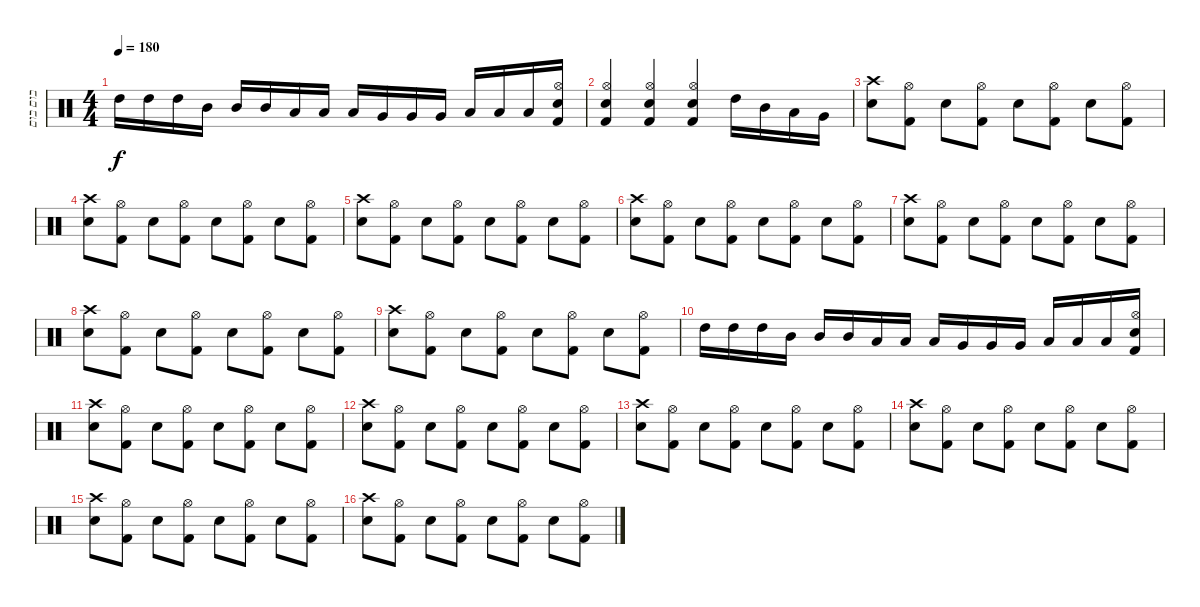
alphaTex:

\track ("בום בום" "בום בום") {instrument percussion}
\staff {score}
\articulation defaults
\ts (4 4)
\tempo 180
\clef neutral
\ks c "High Tom (hit)".16{dy f} "High Tom (hit)".16 "High Tom (hit)".16 "Mid Tom (hit)".16 "Mid Tom (hit)".16 "Mid Tom (hit)".16 "Low Tom (hit)".16 "Low Tom (hit)".16 "Low Tom (hit)".16 "Very Low Tom (hit)".16 "Very Low Tom (hit)".16 "Very Low Tom (hit)".16 "Low Floor Tom (hit)".16 "Low Floor Tom (hit)".16 "Low Floor Tom (hit)".16
("Kick (hit) 2" "Hi-Hat (open)" "Snare (hit) 2").16 |
("Kick (hit) 2" "Hi-Hat (open)" "Snare (hit) 2").4 ("Kick (hit) 2" "Hi-Hat (open)" "Snare (hit) 2").4 ("Kick (hit) 2" "Hi-Hat (open)" "Snare (hit) 2").4 "High Tom (hit)".16 "Mid Tom (hit)".16 "Low Tom (hit)".16 "Very Low Tom (hit)".16 |
("Snare (hit) 2" "Crash high (hit)").8 ("Kick (hit) 2" "Hi-Hat (open)").8 "Snare (hit) 2".8 ("Kick (hit) 2" "Hi-Hat (open)").8 "Snare (hit) 2".8 ("Kick (hit) 2" "Hi-Hat (open)").8 "Snare (hit) 2".8 ("Kick (hit) 2" "Hi-Hat (open)").8 |
("Snare (hit) 2" "Crash high (hit)").8 ("Kick (hit) 2" "Hi-Hat (open)").8 "Snare (hit) 2".8 ("Kick (hit) 2" "Hi-Hat (open)").8 "Snare (hit) 2".8 ("Kick (hit) 2" "Hi-Hat (open)").8 "Snare (hit) 2".8 ("Kick (hit) 2" "Hi-Hat (open)").8 |
("Snare (hit) 2" "Crash high (hit)").8 ("Kick (hit) 2" "Hi-Hat (open)").8 "Snare (hit) 2".8 ("Kick (hit) 2" "Hi-Hat (open)").8 "Snare (hit) 2".8 ("Kick (hit) 2" "Hi-Hat (open)").8 "Snare (hit) 2".8 ("Kick (hit) 2" "Hi-Hat (open)").8 |
("Snare (hit) 2" "Crash high (hit)").8 ("Kick (hit) 2" "Hi-Hat (open)").8 "Snare (hit) 2".8 ("Kick (hit) 2" "Hi-Hat (open)").8 "Snare (hit) 2".8 ("Kick (hit) 2" "Hi-Hat (open)").8 "Snare (hit) 2".8 ("Kick (hit) 2" "Hi-Hat (open)").8 |
("Snare (hit) 2" "Crash high (hit)").8 ("Kick (hit) 2" "Hi-Hat (open)").8 "Snare (hit) 2".8 ("Kick (hit) 2" "Hi-Hat (open)").8 "Snare (hit) 2".8 ("Kick (hit) 2" "Hi-Hat (open)").8 "Snare (hit) 2".8 ("Kick (hit) 2" "Hi-Hat (open)").8 |
("Snare (hit) 2" "Crash high (hit)").8 ("Kick (hit) 2" "Hi-Hat (open)").8 "Snare (hit) 2".8 ("Kick (hit) 2" "Hi-Hat (open)").8 "Snare (hit) 2".8 ("Kick (hit) 2" "Hi-Hat (open)").8 "Snare (hit) 2".8 ("Kick (hit) 2" "Hi-Hat (open)").8 |
("Snare (hit) 2" "Crash high (hit)").8 ("Kick (hit) 2" "Hi-Hat (open)").8 "Snare (hit) 2".8 ("Kick (hit) 2" "Hi-Hat (open)").8 "Snare (hit) 2".8 ("Kick (hit) 2" "Hi-Hat (open)").8 "Snare (hit) 2".8 ("Kick (hit) 2" "Hi-Hat (open)").8 |
"High Tom (hit)".16 "High Tom (hit)".16 "High Tom (hit)".16 "Mid Tom (hit)".16 "Mid Tom (hit)".16 "Mid Tom (hit)".16 "Low Tom (hit)".16 "Low Tom (hit)".16 "Low Tom (hit)".16 "Very Low Tom (hit)".16 "Very Low Tom (hit)".16 "Very Low Tom (hit)".16 "Low Floor Tom (hit)".16 "Low Floor Tom (hit)".16 "Low Floor Tom (hit)".16 ("Kick (hit) 2" "Hi-Hat (open)" "Snare (hit) 2").16 |
("Snare (hit) 2" "Crash high (hit)").8 ("Kick (hit) 2" "Hi-Hat (open)").8 "Snare (hit) 2".8 ("Kick (hit) 2" "Hi-Hat (open)").8 "Snare (hit) 2".8 ("Kick (hit) 2" "Hi-Hat (open)").8 "Snare (hit) 2".8 ("Kick (hit) 2" "Hi-Hat (open)").8 |
("Snare (hit) 2" "Crash high (hit)").8 ("Kick (hit) 2" "Hi-Hat (open)").8 "Snare (hit) 2".8 ("Kick (hit) 2" "Hi-Hat (open)").8 "Snare (hit) 2".8 ("Kick (hit) 2" "Hi-Hat (open)").8 "Snare (hit) 2".8 ("Kick (hit) 2" "Hi-Hat (open)").8 |
("Snare (hit) 2" "Crash high (hit)").8 ("Kick (hit) 2" "Hi-Hat (open)").8 "Snare (hit) 2".8 ("Kick (hit) 2" "Hi-Hat (open)").8 "Snare (hit) 2".8 ("Kick (hit) 2" "Hi-Hat (open)").8 "Snare (hit) 2".8 ("Kick (hit) 2" "Hi-Hat (open)").8 |
("Snare (hit) 2" "Crash high (hit)").8 ("Kick (hit) 2" "Hi-Hat (open)").8 "Snare (hit) 2".8 ("Kick (hit) 2" "Hi-Hat (open)").8 "Snare (hit) 2".8 ("Kick (hit) 2" "Hi-Hat (open)").8 "Snare (hit) 2".8 ("Kick (hit) 2" "Hi-Hat (open)").8 |
("Snare (hit) 2" "Crash high (hit)").8 ("Kick (hit) 2" "Hi-Hat (open)").8 "Snare (hit) 2".8 ("Kick (hit) 2" "Hi-Hat (open)").8 "Snare (hit) 2".8 ("Kick (hit) 2" "Hi-Hat (open)").8 "Snare (hit) 2".8 ("Kick (hit) 2" "Hi-Hat (open)").8 |
("Snare (hit) 2" "Crash high (hit)").8 ("Kick (hit) 2" "Hi-Hat (open)").8 "Snare (hit) 2".8 ("Kick (hit) 2" "Hi-Hat (open)").8 "Snare (hit) 2".8 ("Kick (hit) 2" "Hi-Hat (open)").8 "Snare (hit) 2".8 ("Kick (hit) 2" "Hi-Hat (open)").8
